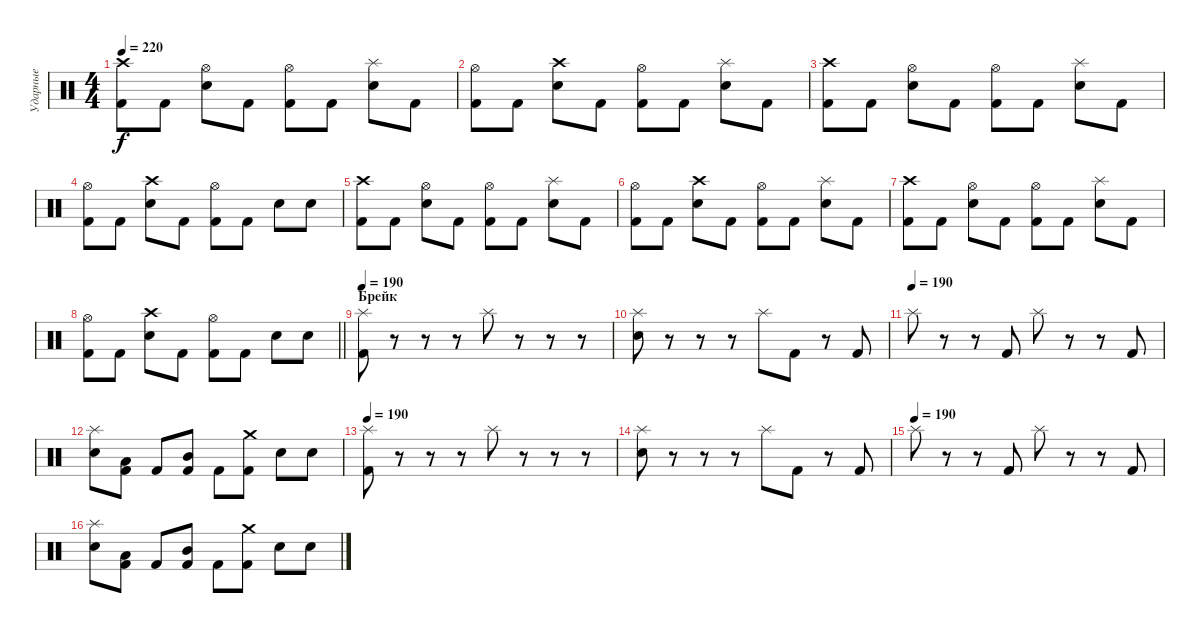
\track ("Ударные" "Ударные") {instrument percussion}
\staff {score}
\articulation defaults
\ts (4 4)
\tempo 220
\clef neutral
\ks c
("Kick (hit) 2" "Crash high (hit)").8{dy f} "Kick (hit) 2".8 ("Electric Snare (hit)" "Hi-Hat (open)").8 "Kick (hit) 2".8 ("Kick (hit) 2" "Hi-Hat (open)").8 "Kick (hit) 2".8 ("Electric Snare (hit)" "Splash (hit)").8 "Kick (hit) 2".8 |
("Kick (hit) 2" "Hi-Hat (open)").8 "Kick (hit) 2".8 ("Electric Snare (hit)" "Crash high (hit)").8 "Kick (hit) 2".8 ("Kick (hit) 2" "Hi-Hat (open)").8 "Kick (hit) 2".8 ("Electric Snare (hit)" "Splash (hit)").8 "Kick (hit) 2".8 |
("Kick (hit) 2" "Crash high (hit)").8 "Kick (hit) 2".8 ("Electric Snare (hit)" "Hi-Hat (open)").8 "Kick (hit) 2".8 ("Kick (hit) 2" "Hi-Hat (open)").8 "Kick (hit) 2".8 ("Electric Snare (hit)" "Splash (hit)").8 "Kick (hit) 2".8 |
("Kick (hit) 2" "Hi-Hat (open)").8 "Kick (hit) 2".8 ("Electric Snare (hit)" "Crash high (hit)").8 "Kick (hit) 2".8 ("Kick (hit) 2" "Hi-Hat (open)").8 "Kick (hit) 2".8 "Electric Snare (hit)".8 "Electric Snare (hit)".8 |
("Kick (hit) 2" "Crash high (hit)").8 "Kick (hit) 2".8 ("Electric Snare (hit)" "Hi-Hat (open)").8 "Kick (hit) 2".8 ("Kick (hit) 2" "Hi-Hat (open)").8 "Kick (hit) 2".8 ("Electric Snare (hit)" "Splash (hit)").8 "Kick (hit) 2".8 |
("Kick (hit) 2" "Hi-Hat (open)").8 "Kick (hit) 2".8 ("Electric Snare (hit)" "Crash high (hit)").8 "Kick (hit) 2".8 ("Kick (hit) 2" "Hi-Hat (open)").8 "Kick (hit) 2".8 ("Electric Snare (hit)" "Splash (hit)").8 "Kick (hit) 2".8 |
("Kick (hit) 2" "Crash high (hit)").8 "Kick (hit) 2".8 ("Electric Snare (hit)" "Hi-Hat (open)").8 "Kick (hit) 2".8 ("Kick (hit) 2" "Hi-Hat (open)").8 "Kick (hit) 2".8 ("Electric Snare (hit)" "Splash (hit)").8 "Kick (hit) 2".8 |
\barLineRight lightlight
("Kick (hit) 2" "Hi-Hat (open)").8 "Kick (hit) 2".8 ("Electric Snare (hit)" "Crash high (hit)").8 "Kick (hit) 2".8 ("Kick (hit) 2" "Hi-Hat (open)").8 "Kick (hit) 2".8 "Electric Snare (hit)".8 "Electric Snare (hit)".8 |
\section ("" "Брейк")
\tempo 190
("Kick (hit) 2" "Splash (hit)").8 r.8 r.8 r.8 "Splash (hit)".8 r.8 r.8 r.8 |
("Electric Snare (hit)" "Splash (hit)").8 r.8 r.8 r.8 "Splash (hit)".8 "Kick (hit) 2".8 r.8 "Kick (hit) 2".8 |
\tempo (190)
"Splash (hit)".8 r.8 r.8 "Kick (hit) 2".8 "Splash (hit)".8 r.8 r.8 "Kick (hit) 2".8 |
("Electric Snare (hit)" "Splash (hit)").8 ("Kick (hit) 2" "Low Tom (hit)").8 "Kick (hit) 2".8 ("Kick (hit) 2" "Mid Tom (hit)").8 "Kick (hit) 2".8 ("Kick (hit) 2" "Crash medium (hit)").8 "Electric Snare (hit)".8 "Electric Snare (hit)".8 |
\tempo 190
("Kick (hit) 2" "Splash (hit)").8 r.8 r.8 r.8 "Splash (hit)".8 r.8 r.8 r.8 |
("Electric Snare (hit)" "Splash (hit)").8 r.8 r.8 r.8 "Splash (hit)".8 "Kick (hit) 2".8 r.8 "Kick (hit) 2".8 |
\tempo (190)
"Splash (hit)".8 r.8 r.8 "Kick (hit) 2".8 "Splash (hit)".8 r.8 r.8 "Kick (hit) 2".8 |
("Electric Snare (hit)" "Splash (hit)").8 ("Kick (hit) 2" "Low Tom (hit)").8 "Kick (hit) 2".8 ("Kick (hit) 2" "Mid Tom (hit)").8 "Kick (hit) 2".8 ("Kick (hit) 2" "Crash medium (hit)").8 "Electric Snare (hit)".8 "Electric Snare (hit)".8
